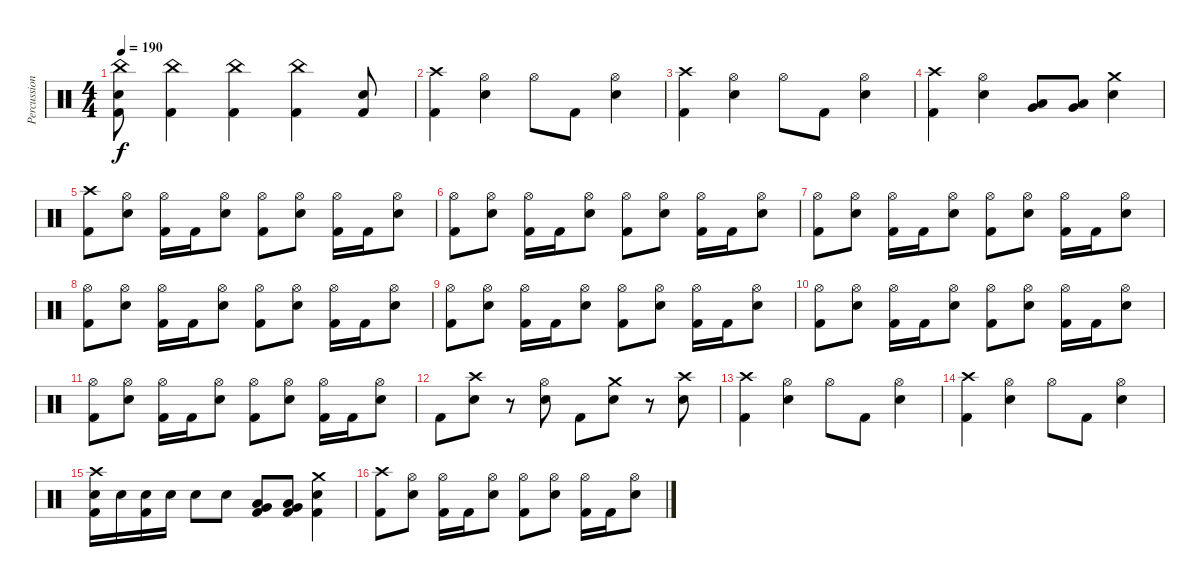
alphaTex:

\track ("Percussion" "Percussion") {instrument percussion}
\staff {score}
\articulation defaults
\ts (4 4)
\tempo 190
\clef neutral
\ks c
("China (hit)" "Snare (hit) 2" "Kick (hit) 2").8{dy f} ("China (hit)" "Kick (hit) 2").4 ("China (hit)" "Kick (hit) 2").4 ("China (hit)" "Kick (hit) 2").4 ("Snare (hit) 2" "Kick (hit) 2").8 |
("Crash high (hit)" "Kick (hit) 2").4 ("Hi-Hat (open)" "Snare (hit) 2").4 "Hi-Hat (open)".8 "Kick (hit) 2".8 ("Hi-Hat (open)" "Snare (hit) 2").4 |
("Crash high (hit)" "Kick (hit) 2").4 ("Hi-Hat (open)" "Snare (hit) 2").4 "Hi-Hat (open)".8 "Kick (hit) 2".8 ("Hi-Hat (open)" "Snare (hit) 2").4 |
("Crash high (hit)" "Kick (hit) 2").4 ("Hi-Hat (open)" "Snare (hit) 2").4 ("Low Tom (hit)" "Very Low Tom (hit)").8 ("Low Tom (hit)" "Very Low Tom (hit)").8 ("Crash medium (hit)" "Snare (hit) 2").4 |
("Crash high (hit)" "Kick (hit) 2").8 ("Hi-Hat (open)" "Snare (hit) 2").8 ("Hi-Hat (open)" "Kick (hit) 2").16 "Kick (hit) 2".16 ("Hi-Hat (open)" "Snare (hit) 2").8 ("Hi-Hat (open)" "Kick (hit) 2").8 ("Hi-Hat (open)" "Snare (hit) 2").8 ("Hi-Hat (open)" "Kick (hit) 2").16 "Kick (hit) 2".16 ("Hi-Hat (open)" "Snare (hit) 2").8 |
("Hi-Hat (open)" "Kick (hit) 2").8 ("Hi-Hat (open)" "Snare (hit) 2").8 ("Hi-Hat (open)" "Kick (hit) 2").16 "Kick (hit) 2".16 ("Hi-Hat (open)" "Snare (hit) 2").8 ("Hi-Hat (open)" "Kick (hit) 2").8 ("Hi-Hat (open)" "Snare (hit) 2").8 ("Hi-Hat (open)" "Kick (hit) 2").16 "Kick (hit) 2".16 ("Hi-Hat (open)" "Snare (hit) 2").8 |
("Hi-Hat (open)" "Kick (hit) 2").8 ("Hi-Hat (open)" "Snare (hit) 2").8 ("Hi-Hat (open)" "Kick (hit) 2").16 "Kick (hit) 2".16 ("Hi-Hat (open)" "Snare (hit) 2").8 ("Hi-Hat (open)" "Kick (hit) 2").8 ("Hi-Hat (open)" "Snare (hit) 2").8 ("Hi-Hat (open)" "Kick (hit) 2").16 "Kick (hit) 2".16 ("Hi-Hat (open)" "Snare (hit) 2").8 |
("Hi-Hat (open)" "Kick (hit) 2").8 ("Hi-Hat (open)" "Snare (hit) 2").8 ("Hi-Hat (open)" "Kick (hit) 2").16 "Kick (hit) 2".16 ("Hi-Hat (open)" "Snare (hit) 2").8 ("Hi-Hat (open)" "Kick (hit) 2").8 ("Hi-Hat (open)" "Snare (hit) 2").8 ("Hi-Hat (open)" "Kick (hit) 2").16 "Kick (hit) 2".16 ("Hi-Hat (open)" "Snare (hit) 2").8 |
("Hi-Hat (open)" "Kick (hit) 2").8 ("Hi-Hat (open)" "Snare (hit) 2").8 ("Hi-Hat (open)" "Kick (hit) 2").16 "Kick (hit) 2".16 ("Hi-Hat (open)" "Snare (hit) 2").8 ("Hi-Hat (open)" "Kick (hit) 2").8 ("Hi-Hat (open)" "Snare (hit) 2").8 ("Hi-Hat (open)" "Kick (hit) 2").16 "Kick (hit) 2".16 ("Hi-Hat (open)" "Snare (hit) 2").8 |
("Hi-Hat (open)" "Kick (hit) 2").8 ("Hi-Hat (open)" "Snare (hit) 2").8 ("Hi-Hat (open)" "Kick (hit) 2").16 "Kick (hit) 2".16 ("Hi-Hat (open)" "Snare (hit) 2").8 ("Hi-Hat (open)" "Kick (hit) 2").8 ("Hi-Hat (open)" "Snare (hit) 2").8 ("Hi-Hat (open)" "Kick (hit) 2").16 "Kick (hit) 2".16 ("Hi-Hat (open)" "Snare (hit) 2").8 |
("Hi-Hat (open)" "Kick (hit) 2").8 ("Hi-Hat (open)" "Snare (hit) 2").8 ("Hi-Hat (open)" "Kick (hit) 2").16 "Kick (hit) 2".16 ("Hi-Hat (open)" "Snare (hit) 2").8 ("Hi-Hat (open)" "Kick (hit) 2").8 ("Hi-Hat (open)" "Snare (hit) 2").8 ("Hi-Hat (open)" "Kick (hit) 2").16 "Kick (hit) 2".16 ("Hi-Hat (open)" "Snare (hit) 2").8 |
"Kick (hit) 2".8 ("Crash high (hit)" "Snare (hit) 2").8 r.8 ("Hi-Hat (open)" "Snare (hit) 2").8 "Kick (hit) 2".8 ("Crash medium (hit)" "Snare (hit) 2").8 r.8 ("Crash high (hit)" "Snare (hit) 2").8 |
("Crash high (hit)" "Kick (hit) 2").4 ("Hi-Hat (open)" "Snare (hit) 2").4 "Hi-Hat (open)".8 "Kick (hit) 2".8 ("Hi-Hat (open)" "Snare (hit) 2").4 |
("Crash high (hit)" "Kick (hit) 2").4 ("Hi-Hat (open)" "Snare (hit) 2").4 "Hi-Hat (open)".8 "Kick (hit) 2".8 ("Hi-Hat (open)" "Snare (hit) 2").4 |
("Crash high (hit)" "Snare (hit) 2" "Kick (hit) 2").16 "Snare (hit) 2".16 ("Snare (hit) 2" "Kick (hit) 2").16 "Snare (hit) 2".16 "Snare (hit) 2".8 "Snare (hit) 2".8 ("Low Tom (hit)" "Very Low Tom (hit)" "Kick (hit) 2").8 ("Low Tom (hit)" "Very Low Tom (hit)" "Kick (hit) 2").8 ("Crash medium (hit)" "Snare (hit) 2" "Kick (hit) 2").4 |
("Crash high (hit)" "Kick (hit) 2").8 ("Hi-Hat (open)" "Snare (hit) 2").8 ("Hi-Hat (open)" "Kick (hit) 2").16 "Kick (hit) 2".16 ("Hi-Hat (open)" "Snare (hit) 2").8 ("Hi-Hat (open)" "Kick (hit) 2").8 ("Hi-Hat (open)" "Snare (hit) 2").8 ("Hi-Hat (open)" "Kick (hit) 2").16 "Kick (hit) 2".16 ("Hi-Hat (open)" "Snare (hit) 2").8
